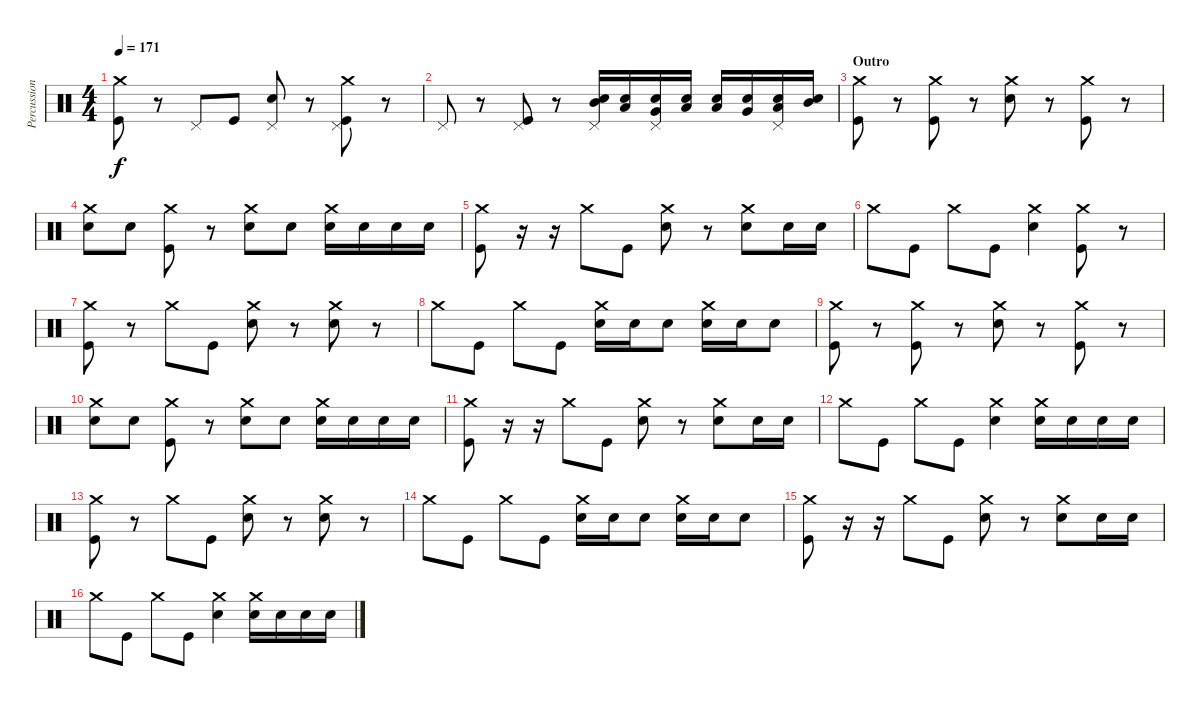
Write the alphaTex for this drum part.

\track ("Percussion" "Percussion") {instrument percussion}
\staff {score}
\articulation defaults
\ts (4 4)
\tempo 171
\clef neutral
\ks c
("Crash medium (hit)" "Kick (hit)").8{dy f} r.8 "Pedal Hi-Hat (hit)".8 "Kick (hit)".8 ("Pedal Hi-Hat (hit)" "Electric Snare (hit)").8 r.8 ("Crash medium (hit)" "Pedal Hi-Hat (hit)" "Kick (hit)").8 r.8 |
"Pedal Hi-Hat (hit)".8 r.8 ("Pedal Hi-Hat (hit)" "Kick (hit)").8 r.8 ("Pedal Hi-Hat (hit)" "Mid Tom (hit)" "Electric Snare (hit)").16 ("Low Tom (hit)" "Electric Snare (hit)").16 ("Pedal Hi-Hat (hit)" "Very Low Tom (hit)" "Electric Snare (hit)").16 ("Low Floor Tom (hit)" "Electric Snare (hit)").16 ("Low Floor Tom (hit)" "Electric Snare (hit)").16 ("Very Low Tom (hit)" "Electric Snare (hit)").16 ("Pedal Hi-Hat (hit)" "Low Tom (hit)" "Electric Snare (hit)").16 ("Mid Tom (hit)" "Electric Snare (hit)").16 |
\section ("" "Outro")
("Crash medium (hit)" "Kick (hit)").8 r.8 ("Crash medium (hit)" "Kick (hit)").8 r.8 ("Crash medium (hit)" "Electric Snare (hit)").8 r.8 ("Crash medium (hit)" "Kick (hit)").8 r.8 |
("Crash medium (hit)" "Electric Snare (hit)").8 "Electric Snare (hit)".8 ("Crash medium (hit)" "Kick (hit)").8 r.8 ("Crash medium (hit)" "Electric Snare (hit)").8 "Electric Snare (hit)".8 ("Crash medium (hit)" "Electric Snare (hit)").16 "Electric Snare (hit)".16 "Electric Snare (hit)".16 "Electric Snare (hit)".16 |
("Crash medium (hit)" "Kick (hit)").8 r.16 r.16 "Crash medium (hit)".8 "Kick (hit)".8 ("Crash medium (hit)" "Electric Snare (hit)").8 r.8 ("Crash medium (hit)" "Electric Snare (hit)").8 "Electric Snare (hit)".16 "Electric Snare (hit)".16 |
"Crash medium (hit)".8 "Kick (hit)".8 "Crash medium (hit)".8 "Kick (hit)".8 ("Crash medium (hit)" "Electric Snare (hit)").4 ("Crash medium (hit)" "Kick (hit)").8 r.8 |
("Crash medium (hit)" "Kick (hit)").8 r.8 "Crash medium (hit)".8 "Kick (hit)".8 ("Crash medium (hit)" "Electric Snare (hit)").8 r.8 ("Crash medium (hit)" "Electric Snare (hit)").8 r.8 |
"Crash medium (hit)".8 "Kick (hit)".8 "Crash medium (hit)".8 "Kick (hit)".8 ("Crash medium (hit)" "Electric Snare (hit)").16 "Electric Snare (hit)".16 "Electric Snare (hit)".8 ("Crash medium (hit)" "Electric Snare (hit)").16 "Electric Snare (hit)".16 "Electric Snare (hit)".8 |
("Crash medium (hit)" "Kick (hit)").8 r.8 ("Crash medium (hit)" "Kick (hit)").8 r.8 ("Crash medium (hit)" "Electric Snare (hit)").8 r.8 ("Crash medium (hit)" "Kick (hit)").8 r.8 |
("Crash medium (hit)" "Electric Snare (hit)").8 "Electric Snare (hit)".8 ("Crash medium (hit)" "Kick (hit)").8 r.8 ("Crash medium (hit)" "Electric Snare (hit)").8 "Electric Snare (hit)".8 ("Crash medium (hit)" "Electric Snare (hit)").16 "Electric Snare (hit)".16 "Electric Snare (hit)".16 "Electric Snare (hit)".16 |
("Crash medium (hit)" "Kick (hit)").8 r.16 r.16 "Crash medium (hit)".8 "Kick (hit)".8 ("Crash medium (hit)" "Electric Snare (hit)").8 r.8 ("Crash medium (hit)" "Electric Snare (hit)").8 "Electric Snare (hit)".16 "Electric Snare (hit)".16 |
"Crash medium (hit)".8 "Kick (hit)".8 "Crash medium (hit)".8 "Kick (hit)".8 ("Crash medium (hit)" "Electric Snare (hit)").4 ("Crash medium (hit)" "Electric Snare (hit)").16 "Electric Snare (hit)".16 "Electric Snare (hit)".16 "Electric Snare (hit)".16 |
("Crash medium (hit)" "Kick (hit)").8 r.8 "Crash medium (hit)".8 "Kick (hit)".8 ("Crash medium (hit)" "Electric Snare (hit)").8 r.8 ("Crash medium (hit)" "Electric Snare (hit)").8 r.8 |
"Crash medium (hit)".8 "Kick (hit)".8 "Crash medium (hit)".8 "Kick (hit)".8 ("Crash medium (hit)" "Electric Snare (hit)").16 "Electric Snare (hit)".16 "Electric Snare (hit)".8 ("Crash medium (hit)" "Electric Snare (hit)").16 "Electric Snare (hit)".16 "Electric Snare (hit)".8 |
("Crash medium (hit)" "Kick (hit)").8 r.16 r.16 "Crash medium (hit)".8 "Kick (hit)".8 ("Crash medium (hit)" "Electric Snare (hit)").8 r.8 ("Crash medium (hit)" "Electric Snare (hit)").8 "Electric Snare (hit)".16 "Electric Snare (hit)".16 |
"Crash medium (hit)".8 "Kick (hit)".8 "Crash medium (hit)".8 "Kick (hit)".8 ("Crash medium (hit)" "Electric Snare (hit)").4 ("Crash medium (hit)" "Electric Snare (hit)").16 "Electric Snare (hit)".16 "Electric Snare (hit)".16 "Electric Snare (hit)".16
